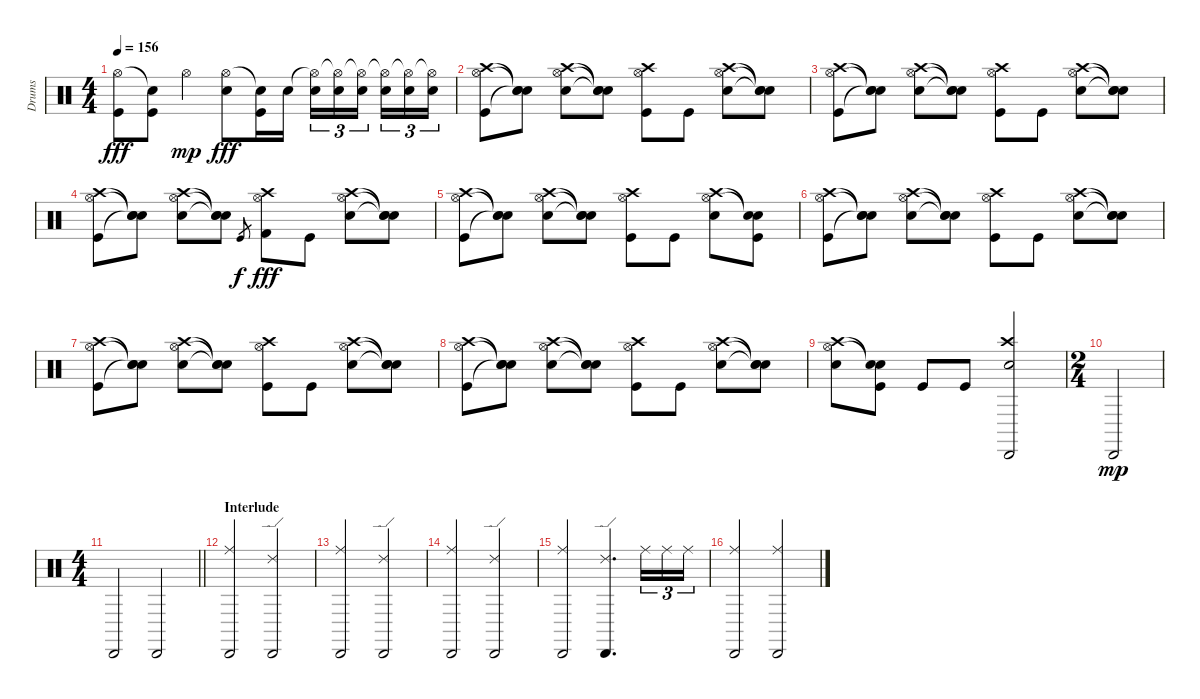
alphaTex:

\track ("Drums" "Drums") {instrument percussion}
\staff {score}
\articulation defaults
\ts (4 4)
\tempo 156
\clef neutral
\ks c
("Hi-Hat (open)" "Kick (hit)").8{dy fff} ("Snare (hit)"{t} "Kick (hit)").8 "Hi-Hat (open)".4{dy mp} ("Hi-Hat (open)" "Snare (hit) 2").8{dy fff} ("Snare (hit)"{t} "Kick (hit)").16 "Snare (hit) 2".16 ("Hi-Hat (open)"{t} "Snare (hit) 2").16{tu (3 2)} ("Hi-Hat (open)"{t} "Snare (hit) 2").16{tu (3 2)} ("Hi-Hat (open)"{t} "Snare (hit) 2").16{tu (3 2) beam splitsecondary} ("Hi-Hat (open)"{t} "Snare (hit) 2").16{tu (3 2)} ("Hi-Hat (open)"{t} "Snare (hit) 2").16{tu (3 2)} ("Hi-Hat (open)"{t} "Snare (hit) 2").16{tu (3 2)} |
("Crash high (hit)" "Hi-Hat (open)" "Kick (hit)").8 ("Snare (hit)"{t} "Snare (hit)"{t} "Snare (hit)"{t}).8 ("Crash high (hit)" "Hi-Hat (open)" "Snare (hit) 2").8 ("Snare (hit)"{t} "Snare (hit)"{t} "Snare (hit)"{t}).8 ("Crash high (hit)" "Hi-Hat (open)" "Kick (hit)").8 "Kick (hit)".8 ("Crash high (hit)" "Hi-Hat (open)" "Snare (hit) 2").8 ("Snare (hit)"{t} "Snare (hit)"{t} "Snare (hit)"{t}).8 |
("Crash high (hit)" "Hi-Hat (open)" "Kick (hit)").8 ("Snare (hit)"{t} "Snare (hit)"{t} "Snare (hit)"{t}).8 ("Crash high (hit)" "Hi-Hat (open)" "Snare (hit) 2").8 ("Snare (hit)"{t} "Snare (hit)"{t} "Snare (hit)"{t}).8 ("Crash high (hit)" "Hi-Hat (open)" "Kick (hit)").8 "Kick (hit)".8 ("Crash high (hit)" "Hi-Hat (open)" "Snare (hit) 2").8 ("Snare (hit)"{t} "Snare (hit)"{t} "Snare (hit)"{t}).8 |
("Crash high (hit)" "Hi-Hat (open)" "Kick (hit)").8 ("Snare (hit)"{t} "Snare (hit)"{t} "Snare (hit)"{t}).8 ("Crash high (hit)" "Hi-Hat (open)" "Snare (hit) 2").8 ("Snare (hit)"{t} "Snare (hit)"{t} "Snare (hit)"{t}).8 "Kick (hit)".8{gr dy f} ("Crash high (hit)" "Hi-Hat (open)" "Kick (hit) 2").8{dy fff} "Kick (hit)".8 ("Crash high (hit)" "Hi-Hat (open)" "Snare (hit) 2").8 ("Snare (hit)"{t} "Snare (hit)"{t} "Snare (hit)"{t}).8 |
("Crash high (hit)" "Hi-Hat (open)" "Kick (hit)").8 ("Snare (hit)"{t} "Snare (hit)"{t} "Snare (hit)"{t}).8 ("Crash high (hit)" "Hi-Hat (open)" "Snare (hit) 2").8 ("Snare (hit)"{t} "Snare (hit)"{t} "Snare (hit)"{t}).8 ("Crash high (hit)" "Hi-Hat (open)" "Kick (hit)").8 "Kick (hit)".8 ("Crash high (hit)" "Hi-Hat (open)" "Snare (hit) 2").8 ("Snare (hit)"{t} "Snare (hit)"{t} "Kick (hit)").8 |
("Crash high (hit)" "Hi-Hat (open)" "Kick (hit)").8 ("Snare (hit)"{t} "Snare (hit)"{t} "Snare (hit)"{t}).8 ("Crash high (hit)" "Hi-Hat (open)" "Snare (hit) 2").8 ("Snare (hit)"{t} "Snare (hit)"{t} "Snare (hit)"{t}).8 ("Crash high (hit)" "Hi-Hat (open)" "Kick (hit)").8 "Kick (hit)".8 ("Crash high (hit)" "Hi-Hat (open)" "Snare (hit) 2").8 ("Snare (hit)"{t} "Snare (hit)"{t} "Snare (hit)"{t}).8 |
("Crash high (hit)" "Hi-Hat (open)" "Kick (hit)").8 ("Snare (hit)"{t} "Snare (hit)"{t} "Snare (hit)"{t}).8 ("Crash high (hit)" "Hi-Hat (open)" "Snare (hit) 2").8 ("Snare (hit)"{t} "Snare (hit)"{t} "Snare (hit)"{t}).8 ("Crash high (hit)" "Hi-Hat (open)" "Kick (hit)").8 "Kick (hit)".8 ("Crash high (hit)" "Hi-Hat (open)" "Snare (hit) 2").8 ("Snare (hit)"{t} "Snare (hit)"{t} "Snare (hit)"{t}).8 |
("Crash high (hit)" "Hi-Hat (open)" "Kick (hit)").8 ("Snare (hit)"{t} "Snare (hit)"{t} "Snare (hit)"{t}).8 ("Crash high (hit)" "Hi-Hat (open)" "Snare (hit) 2").8 ("Snare (hit)"{t} "Snare (hit)"{t} "Snare (hit)"{t}).8 ("Crash high (hit)" "Hi-Hat (open)" "Kick (hit)").8 "Kick (hit)".8 ("Crash high (hit)" "Hi-Hat (open)" "Snare (hit) 2").8 ("Snare (hit)"{t} "Snare (hit)"{t} "Snare (hit)"{t}).8 |
("Crash high (hit)" "Hi-Hat (open)" "Snare (hit) 2").8 ("Snare (hit)"{t} "Snare (hit)"{t} "Kick (hit)").8 "Kick (hit)".8 "Kick (hit)".8 ("Crash high (hit)" "Cabasa (hit)" "Snare (hit) 2").2 |
\ts (2 4)
"Cabasa (hit)".2{dy mp} |
\ts (4 4)
\barLineRight lightlight "Cabasa (hit)".2 "Cabasa (hit)".2
|
\section ("" "Interlude")
("Ride (middle)" "Cabasa (hit)").2 ("Ride (edge) 2" "Cabasa (hit)").2 |
("Ride (middle)" "Cabasa (hit)").2 ("Ride (edge) 2" "Cabasa (hit)").2 |
("Ride (middle)" "Cabasa (hit)").2 ("Ride (edge) 2" "Cabasa (hit)").2 |
("Ride (middle)" "Cabasa (hit)").2 ("Ride (edge) 2" "Cabasa (hit)").4{d} "Ride (middle)".16{tu (3 2)} "Ride (middle)".16{tu (3 2)} "Ride (middle)".16{tu (3 2)} |
("Ride (middle)" "Cabasa (hit)").2 ("Ride (middle)" "Cabasa (hit)").2
